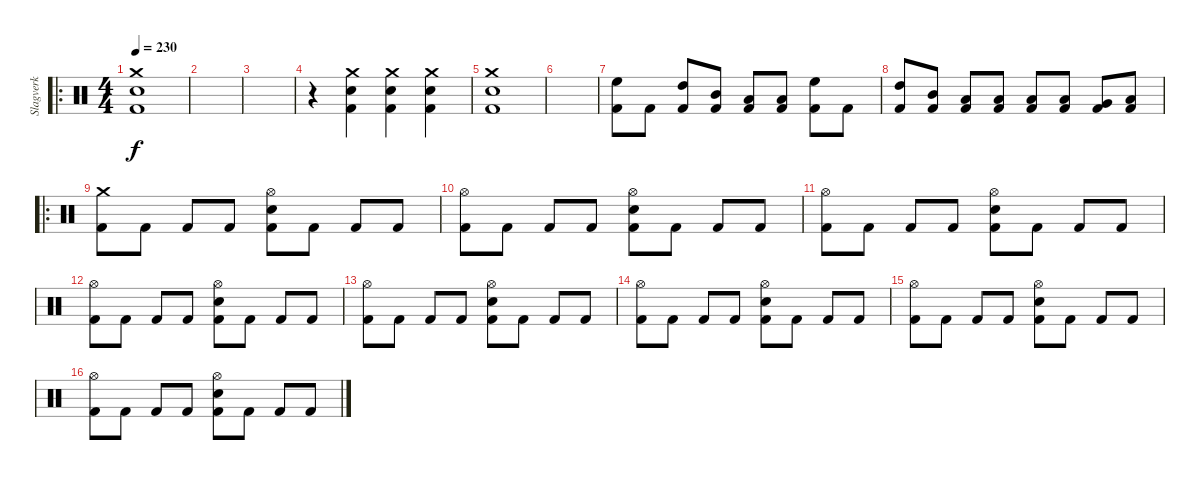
\track ("Slagverk" "Slagverk") {instrument percussion}
\staff {score}
\articulation defaults
\ro
\ts (4 4)
\tempo 230
\clef neutral
\ks c
("Crash medium (hit)" "Kick (hit) 2" "Snare (hit) 2").1{dy f} |
|
|
r.4 ("Crash medium (hit)" "Kick (hit) 2" "Snare (hit) 2").4 ("Crash medium (hit)" "Kick (hit) 2" "Snare (hit) 2").4 ("Crash medium (hit)" "Kick (hit) 2" "Snare (hit) 2").4 |
("Crash medium (hit)" "Kick (hit) 2" "Snare (hit) 2").1 |
|
("High Floor Tom (hit)" "Kick (hit) 2").8 "Kick (hit) 2".8 ("High Tom (hit)" "Kick (hit) 2").8 ("Mid Tom (hit)" "Kick (hit) 2").8 ("Low Tom (hit)" "Kick (hit) 2").8 ("Low Tom (hit)" "Kick (hit) 2").8 ("High Floor Tom (hit)" "Kick (hit) 2").8 "Kick (hit) 2".8 |
("High Tom (hit)" "Kick (hit) 2").8 ("Mid Tom (hit)" "Kick (hit) 2").8 ("Low Tom (hit)" "Kick (hit) 2").8 ("Low Tom (hit)" "Kick (hit) 2").8 ("Low Tom (hit)" "Kick (hit) 2").8 ("Low Tom (hit)" "Kick (hit) 2").8 ("Very Low Tom (hit)" "Kick (hit) 2").8 ("Low Floor Tom (hit)" "Kick (hit) 2").8 |
\ro
("Crash medium (hit)" "Kick (hit) 2").8 "Kick (hit) 2".8 "Kick (hit) 2".8 "Kick (hit) 2".8 ("Hi-Hat (open)" "Kick (hit) 2" "Snare (hit) 2").8 "Kick (hit) 2".8 "Kick (hit) 2".8 "Kick (hit) 2".8 |
("Kick (hit) 2" "Hi-Hat (open)").8 "Kick (hit) 2".8 "Kick (hit) 2".8 "Kick (hit) 2".8 ("Hi-Hat (open)" "Kick (hit) 2" "Snare (hit) 2").8 "Kick (hit) 2".8 "Kick (hit) 2".8 "Kick (hit) 2".8 |
("Kick (hit) 2" "Hi-Hat (open)").8 "Kick (hit) 2".8 "Kick (hit) 2".8 "Kick (hit) 2".8 ("Hi-Hat (open)" "Kick (hit) 2" "Snare (hit) 2").8 "Kick (hit) 2".8 "Kick (hit) 2".8 "Kick (hit) 2".8 |
("Kick (hit) 2" "Hi-Hat (open)").8 "Kick (hit) 2".8 "Kick (hit) 2".8 "Kick (hit) 2".8 ("Hi-Hat (open)" "Kick (hit) 2" "Snare (hit) 2").8 "Kick (hit) 2".8 "Kick (hit) 2".8 "Kick (hit) 2".8 |
("Hi-Hat (open)" "Kick (hit) 2").8 "Kick (hit) 2".8 "Kick (hit) 2".8 "Kick (hit) 2".8 ("Hi-Hat (open)" "Kick (hit) 2" "Snare (hit) 2").8 "Kick (hit) 2".8 "Kick (hit) 2".8 "Kick (hit) 2".8 |
("Kick (hit) 2" "Hi-Hat (open)").8 "Kick (hit) 2".8 "Kick (hit) 2".8 "Kick (hit) 2".8 ("Hi-Hat (open)" "Kick (hit) 2" "Snare (hit) 2").8 "Kick (hit) 2".8 "Kick (hit) 2".8 "Kick (hit) 2".8 |
("Kick (hit) 2" "Hi-Hat (open)").8 "Kick (hit) 2".8 "Kick (hit) 2".8 "Kick (hit) 2".8 ("Hi-Hat (open)" "Kick (hit) 2" "Snare (hit) 2").8 "Kick (hit) 2".8 "Kick (hit) 2".8 "Kick (hit) 2".8 |
("Kick (hit) 2" "Hi-Hat (open)").8 "Kick (hit) 2".8 "Kick (hit) 2".8 "Kick (hit) 2".8 ("Hi-Hat (open)" "Kick (hit) 2" "Snare (hit) 2").8 "Kick (hit) 2".8 "Kick (hit) 2".8 "Kick (hit) 2".8
